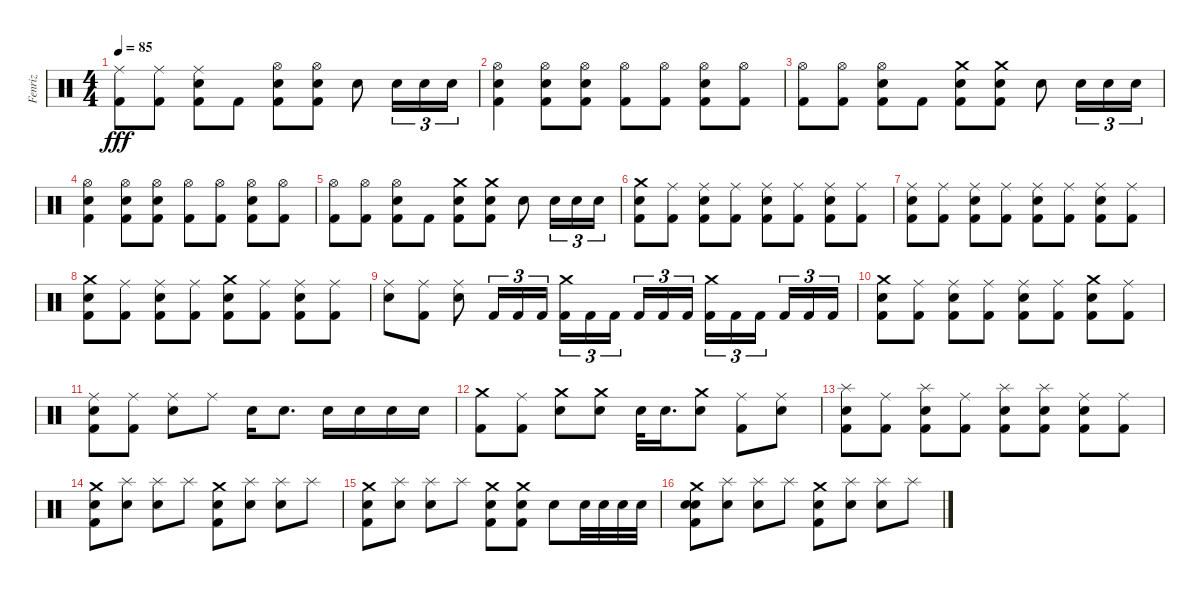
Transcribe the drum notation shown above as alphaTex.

\track ("Fenriz" "Fenriz") {instrument percussion}
\staff {score}
\articulation defaults
\ts (4 4)
\tempo 85
\clef neutral
\ks c
("Ride (middle)" "Kick (hit) 2").8{dy fff} ("Ride (middle)" "Kick (hit) 2").8 ("Ride (middle)" "Snare (hit) 2" "Kick (hit) 2").8 "Kick (hit) 2".8 ("Hi-Hat (open)" "Snare (hit) 2" "Kick (hit) 2").8 ("Hi-Hat (open)" "Snare (hit) 2" "Kick (hit) 2").8 "Snare (hit) 2".8 "Snare (hit) 2".16{tu (3 2)} "Snare (hit) 2".16{tu (3 2)} "Snare (hit) 2".16{tu (3 2)} |
("Hi-Hat (open)" "Snare (hit) 2" "Kick (hit) 2").4 ("Hi-Hat (open)" "Snare (hit) 2" "Kick (hit) 2").8 ("Hi-Hat (open)" "Snare (hit) 2" "Kick (hit) 2").8 ("Hi-Hat (open)" "Kick (hit) 2").8 ("Hi-Hat (open)" "Kick (hit) 2").8 ("Hi-Hat (open)" "Snare (hit) 2" "Kick (hit) 2").8 ("Hi-Hat (open)" "Kick (hit) 2").8 |
("Hi-Hat (open)" "Kick (hit) 2").8 ("Hi-Hat (open)" "Kick (hit) 2").8 ("Hi-Hat (open)" "Snare (hit) 2" "Kick (hit) 2").8 "Kick (hit) 2".8 ("Crash medium (hit)" "Snare (hit) 2" "Kick (hit) 2").8 ("Crash medium (hit)" "Snare (hit) 2" "Kick (hit) 2").8 "Snare (hit) 2".8 "Snare (hit) 2".16{tu (3 2)} "Snare (hit) 2".16{tu (3 2)} "Snare (hit) 2".16{tu (3 2)} |
("Hi-Hat (open)" "Snare (hit) 2" "Kick (hit) 2").4 ("Hi-Hat (open)" "Snare (hit) 2" "Kick (hit) 2").8 ("Hi-Hat (open)" "Snare (hit) 2" "Kick (hit) 2").8 ("Hi-Hat (open)" "Kick (hit) 2").8 ("Hi-Hat (open)" "Kick (hit) 2").8 ("Hi-Hat (open)" "Snare (hit) 2" "Kick (hit) 2").8 ("Hi-Hat (open)" "Kick (hit) 2").8 |
("Hi-Hat (open)" "Kick (hit) 2").8 ("Hi-Hat (open)" "Kick (hit) 2").8 ("Hi-Hat (open)" "Snare (hit) 2" "Kick (hit) 2").8 "Kick (hit) 2".8 ("Crash medium (hit)" "Snare (hit) 2" "Kick (hit) 2").8 ("Crash medium (hit)" "Snare (hit) 2" "Kick (hit) 2").8 "Snare (hit) 2".8 "Snare (hit) 2".16{tu (3 2)} "Snare (hit) 2".16{tu (3 2)} "Snare (hit) 2".16{tu (3 2)} |
("Crash medium (hit)" "Snare (hit) 2" "Kick (hit) 2").8 ("Ride (middle)" "Kick (hit) 2").8 ("Ride (middle)" "Snare (hit) 2" "Kick (hit) 2").8 ("Ride (middle)" "Kick (hit) 2").8 ("Ride (middle)" "Snare (hit) 2" "Kick (hit) 2").8 ("Ride (middle)" "Kick (hit) 2").8 ("Ride (middle)" "Snare (hit) 2" "Kick (hit) 2").8 ("Ride (middle)" "Kick (hit) 2").8 |
("Ride (middle)" "Snare (hit) 2" "Kick (hit) 2").8 ("Ride (middle)" "Kick (hit) 2").8 ("Ride (middle)" "Snare (hit) 2" "Kick (hit) 2").8 ("Ride (middle)" "Kick (hit) 2").8 ("Ride (middle)" "Snare (hit) 2" "Kick (hit) 2").8 ("Ride (middle)" "Kick (hit) 2").8 ("Ride (middle)" "Snare (hit) 2" "Kick (hit) 2").8 ("Ride (middle)" "Kick (hit) 2").8 |
("Crash medium (hit)" "Snare (hit) 2" "Kick (hit) 2").8 ("Ride (middle)" "Kick (hit) 2").8 ("Ride (middle)" "Snare (hit) 2" "Kick (hit) 2").8 ("Ride (middle)" "Kick (hit) 2").8 ("Crash medium (hit)" "Snare (hit) 2" "Kick (hit) 2").8 ("Ride (middle)" "Kick (hit) 2").8 ("Ride (middle)" "Snare (hit) 2" "Kick (hit) 2").8 ("Ride (middle)" "Kick (hit) 2").8 |
("Ride (middle)" "Snare (hit) 2").8 ("Ride (middle)" "Kick (hit) 2").8 ("Ride (middle)" "Snare (hit) 2").8 "Kick (hit) 2".16{tu (3 2)} "Kick (hit) 2".16{tu (3 2)} "Kick (hit) 2".16{tu (3 2)} ("Crash medium (hit)" "Kick (hit) 2").16{tu (3 2)} "Kick (hit) 2".16{tu (3 2)} "Kick (hit) 2".16{tu (3 2) beam splitsecondary} "Kick (hit) 2".16{tu (3 2)} "Kick (hit) 2".16{tu (3 2)} "Kick (hit) 2".16{tu (3 2)} ("Crash medium (hit)" "Kick (hit) 2").16{tu (3 2)} "Kick (hit) 2".16{tu (3 2)} "Kick (hit) 2".16{tu (3 2) beam splitsecondary} "Kick (hit) 2".16{tu (3 2)} "Kick (hit) 2".16{tu (3 2)} "Kick (hit) 2".16{tu (3 2)} |
("Crash medium (hit)" "Snare (hit) 2" "Kick (hit) 2").8 ("Ride (middle)" "Kick (hit) 2").8 ("Ride (middle)" "Snare (hit) 2" "Kick (hit) 2").8 ("Ride (middle)" "Kick (hit) 2").8 ("Ride (middle)" "Snare (hit) 2" "Kick (hit) 2").8 ("Ride (middle)" "Kick (hit) 2").8 ("Crash medium (hit)" "Snare (hit) 2" "Kick (hit) 2").8 ("Ride (middle)" "Kick (hit) 2").8 |
("Ride (middle)" "Snare (hit) 2" "Kick (hit) 2").8 ("Ride (middle)" "Kick (hit) 2").8 ("Ride (middle)" "Snare (hit) 2").8 "Ride (middle)".8 "Snare (hit) 2".16 "Snare (hit) 2".8{d} "Snare (hit) 2".16 "Snare (hit) 2".16 "Snare (hit) 2".16 "Snare (hit) 2".16 |
("Crash medium (hit)" "Kick (hit) 2").8 ("Ride (middle)" "Kick (hit) 2").8 ("Crash medium (hit)" "Snare (hit) 2").8 ("Crash medium (hit)" "Snare (hit) 2").8 "Snare (hit) 2".32 "Snare (hit) 2".16{d} ("Crash medium (hit)" "Snare (hit) 2").8 ("Ride (middle)" "Kick (hit) 2").8 ("Ride (middle)" "Snare (hit) 2").8 |
("Splash (hit)" "Snare (hit) 2" "Kick (hit) 2").8 ("Ride (middle)" "Kick (hit) 2").8 ("Splash (hit)" "Snare (hit) 2" "Kick (hit) 2").8 ("Ride (middle)" "Kick (hit) 2").8 ("Splash (hit)" "Snare (hit) 2" "Kick (hit) 2").8 ("Splash (hit)" "Snare (hit) 2" "Kick (hit) 2").8 ("Ride (middle)" "Snare (hit) 2" "Kick (hit) 2").8 ("Ride (middle)" "Kick (hit) 2").8 |
("Crash medium (hit)" "Snare (hit) 2" "Kick (hit) 2").8 ("Splash (hit)" "Snare (hit) 2").8 ("Splash (hit)" "Snare (hit) 2").8 "Splash (hit)".8 ("Crash medium (hit)" "Snare (hit) 2" "Kick (hit) 2").8 ("Splash (hit)" "Snare (hit) 2").8 ("Splash (hit)" "Snare (hit) 2").8 "Splash (hit)".8 |
("Crash medium (hit)" "Snare (hit) 2" "Kick (hit) 2").8 ("Splash (hit)" "Snare (hit) 2").8 ("Splash (hit)" "Snare (hit) 2").8 "Splash (hit)".8 ("Crash medium (hit)" "Snare (hit) 2" "Kick (hit) 2").8 ("Crash medium (hit)" "Snare (hit) 2" "Kick (hit) 2").8 "Snare (hit) 2".8 "Snare (hit) 2".32 "Snare (hit) 2".32 "Snare (hit) 2".32 "Snare (hit) 2".32 |
("Crash medium (hit)" "Electric Snare (hit)" "Snare (hit) 2" "Kick (hit) 2").8 ("Splash (hit)" "Snare (hit) 2").8 ("Splash (hit)" "Snare (hit) 2").8 "Splash (hit)".8 ("Crash medium (hit)" "Snare (hit) 2" "Kick (hit) 2").8 ("Splash (hit)" "Snare (hit) 2").8 ("Splash (hit)" "Snare (hit) 2").8 "Splash (hit)".8
